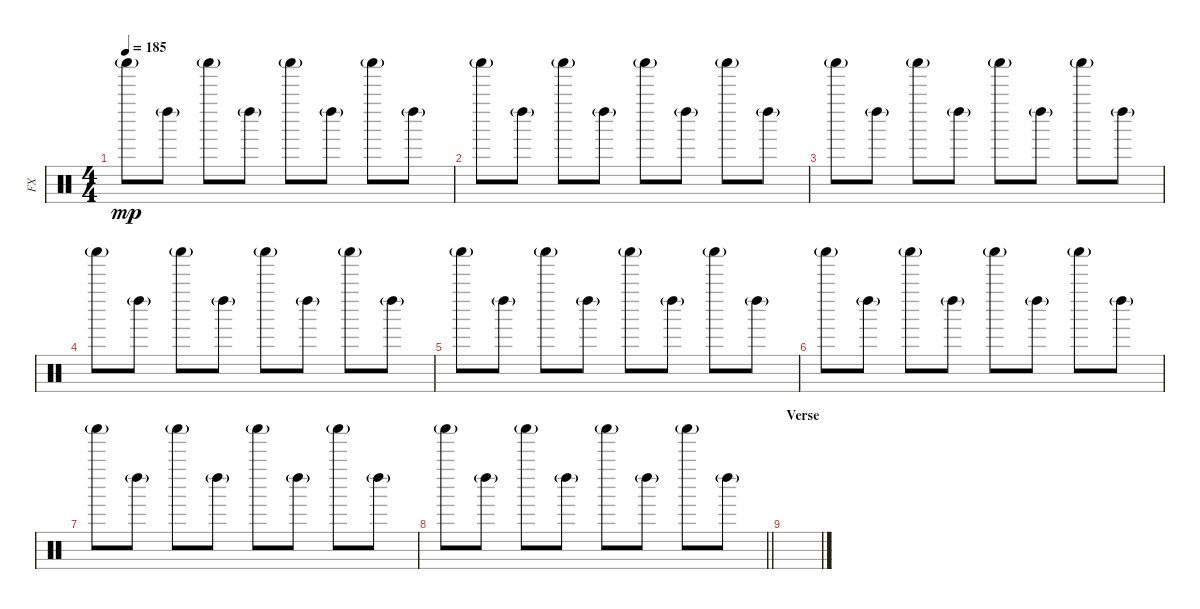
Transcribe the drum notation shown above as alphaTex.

\track ("FX" "FX") {instrument percussion}
\staff {score}
\articulation defaults
\ts (4 4)
\tempo 185
\clef neutral
\ks c "Shaker (hit)"{g}.8{dy mp} "Left Maraca (hit)"{g}.8 "Shaker (hit)"{g}.8 "Left Maraca (hit)"{g}.8 "Shaker (hit)"{g}.8 "Left Maraca (hit)"{g}.8 "Shaker (hit)"{g}.8 "Left Maraca (hit)"{g}.8
|
"Shaker (hit)"{g}.8 "Left Maraca (hit)"{g}.8 "Shaker (hit)"{g}.8 "Left Maraca (hit)"{g}.8 "Shaker (hit)"{g}.8 "Left Maraca (hit)"{g}.8 "Shaker (hit)"{g}.8 "Left Maraca (hit)"{g}.8 |
"Shaker (hit)"{g}.8 "Left Maraca (hit)"{g}.8 "Shaker (hit)"{g}.8 "Left Maraca (hit)"{g}.8 "Shaker (hit)"{g}.8 "Left Maraca (hit)"{g}.8 "Shaker (hit)"{g}.8 "Left Maraca (hit)"{g}.8 |
"Shaker (hit)"{g}.8 "Left Maraca (hit)"{g}.8 "Shaker (hit)"{g}.8 "Left Maraca (hit)"{g}.8 "Shaker (hit)"{g}.8 "Left Maraca (hit)"{g}.8 "Shaker (hit)"{g}.8 "Left Maraca (hit)"{g}.8 |
"Shaker (hit)"{g}.8 "Left Maraca (hit)"{g}.8 "Shaker (hit)"{g}.8 "Left Maraca (hit)"{g}.8 "Shaker (hit)"{g}.8 "Left Maraca (hit)"{g}.8 "Shaker (hit)"{g}.8 "Left Maraca (hit)"{g}.8 |
"Shaker (hit)"{g}.8 "Left Maraca (hit)"{g}.8 "Shaker (hit)"{g}.8 "Left Maraca (hit)"{g}.8 "Shaker (hit)"{g}.8 "Left Maraca (hit)"{g}.8 "Shaker (hit)"{g}.8 "Left Maraca (hit)"{g}.8 |
"Shaker (hit)"{g}.8 "Left Maraca (hit)"{g}.8 "Shaker (hit)"{g}.8 "Left Maraca (hit)"{g}.8 "Shaker (hit)"{g}.8 "Left Maraca (hit)"{g}.8 "Shaker (hit)"{g}.8 "Left Maraca (hit)"{g}.8 |
\barLineRight lightlight "Shaker (hit)"{g}.8 "Left Maraca (hit)"{g}.8 "Shaker (hit)"{g}.8 "Left Maraca (hit)"{g}.8 "Shaker (hit)"{g}.8 "Left Maraca (hit)"{g}.8 "Shaker (hit)"{g}.8 "Left Maraca (hit)"{g}.8
|
\section ("" "Verse")
